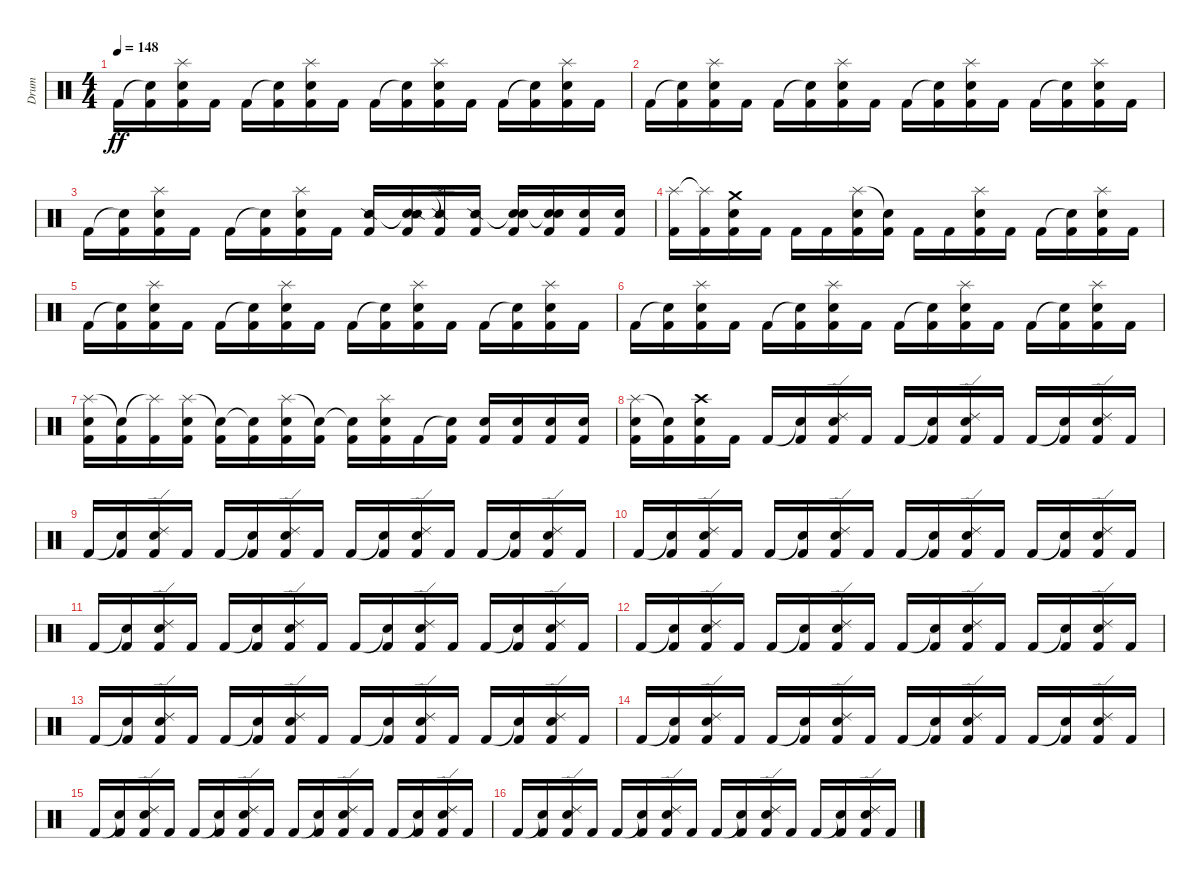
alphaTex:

\track ("Drum" "Drum") {instrument percussion}
\staff {score}
\articulation defaults
\ts (4 4)
\tempo 148
\clef neutral
\ks c "Kick (hit) 2".16{dy ff}
("Snare (hit)"{t} "Kick (hit) 2").16 ("Splash (hit)" "Snare (hit) 2" "Kick (hit) 2").16 "Kick (hit) 2".16 "Kick (hit) 2".16 ("Snare (hit)"{t} "Kick (hit) 2").16 ("Splash (hit)" "Snare (hit) 2" "Kick (hit) 2").16 "Kick (hit) 2".16 "Kick (hit) 2".16 ("Snare (hit)"{t} "Kick (hit) 2").16 ("Splash (hit)" "Snare (hit) 2" "Kick (hit) 2").16 "Kick (hit) 2".16 "Kick (hit) 2".16 ("Snare (hit)"{t} "Kick (hit) 2").16 ("Splash (hit)" "Snare (hit) 2" "Kick (hit) 2").16 "Kick (hit) 2".16 |
"Kick (hit) 2".16 ("Snare (hit)"{t} "Kick (hit) 2").16 ("Splash (hit)" "Snare (hit) 2" "Kick (hit) 2").16 "Kick (hit) 2".16 "Kick (hit) 2".16 ("Snare (hit)"{t} "Kick (hit) 2").16 ("Splash (hit)" "Snare (hit) 2" "Kick (hit) 2").16 "Kick (hit) 2".16 "Kick (hit) 2".16 ("Snare (hit)"{t} "Kick (hit) 2").16 ("Splash (hit)" "Snare (hit) 2" "Kick (hit) 2").16 "Kick (hit) 2".16 "Kick (hit) 2".16 ("Snare (hit)"{t} "Kick (hit) 2").16 ("Splash (hit)" "Snare (hit) 2" "Kick (hit) 2").16 "Kick (hit) 2".16 |
"Kick (hit) 2".16 ("Snare (hit)"{t} "Kick (hit) 2").16 ("Splash (hit)" "Snare (hit) 2" "Kick (hit) 2").16 "Kick (hit) 2".16 "Kick (hit) 2".16 ("Snare (hit)"{t} "Kick (hit) 2").16 ("Splash (hit)" "Snare (hit) 2" "Kick (hit) 2").16 "Kick (hit) 2".16 ("Snare (side stick) 2" "Kick (hit) 2").16 ("Snare (hit)"{t} "Snare (side stick) 2" "Kick (hit) 2").16 ("Splash (hit)"{t} "Snare (side stick) 2" "Kick (hit) 2").16 ("Snare (side stick) 2" "Kick (hit) 2").16 ("Snare (hit)"{t} "Snare (hit) 2" "Kick (hit) 2").16 ("Snare (hit)"{t} "Snare (hit) 2" "Kick (hit) 2").16 ("Snare (hit) 2" "Kick (hit) 2").16 ("Snare (hit) 2" "Kick (hit) 2").16 |
("Splash (hit)" "Kick (hit) 2").16 ("Splash (hit)"{t} "Kick (hit) 2").16 ("Crash medium (hit)" "Snare (hit) 2" "Kick (hit) 2").16 "Kick (hit) 2".16 "Kick (hit) 2".16 "Kick (hit) 2".16 ("Splash (hit)" "Snare (hit) 2" "Kick (hit) 2").16 ("Snare (hit) 2"{t} "Kick (hit) 2").16 "Kick (hit) 2".16 "Kick (hit) 2".16 ("Splash (hit)" "Snare (hit) 2" "Kick (hit) 2").16 "Kick (hit) 2".16 "Kick (hit) 2".16 ("Snare (hit)"{t} "Kick (hit) 2").16 ("Splash (hit)" "Snare (hit) 2" "Kick (hit) 2").16 "Kick (hit) 2".16 |
"Kick (hit) 2".16 ("Snare (hit)"{t} "Kick (hit) 2").16 ("Splash (hit)" "Snare (hit) 2" "Kick (hit) 2").16 "Kick (hit) 2".16 "Kick (hit) 2".16 ("Snare (hit)"{t} "Kick (hit) 2").16 ("Splash (hit)" "Snare (hit) 2" "Kick (hit) 2").16 "Kick (hit) 2".16 "Kick (hit) 2".16 ("Snare (hit)"{t} "Kick (hit) 2").16 ("Splash (hit)" "Snare (hit) 2" "Kick (hit) 2").16 "Kick (hit) 2".16 "Kick (hit) 2".16 ("Snare (hit)"{t} "Kick (hit) 2").16 ("Splash (hit)" "Snare (hit) 2" "Kick (hit) 2").16 "Kick (hit) 2".16 |
"Kick (hit) 2".16 ("Snare (hit)"{t} "Kick (hit) 2").16 ("Splash (hit)" "Snare (hit) 2" "Kick (hit) 2").16 "Kick (hit) 2".16 "Kick (hit) 2".16 ("Snare (hit)"{t} "Kick (hit) 2").16 ("Splash (hit)" "Snare (hit) 2" "Kick (hit) 2").16 "Kick (hit) 2".16 "Kick (hit) 2".16 ("Snare (hit)"{t} "Kick (hit) 2").16 ("Splash (hit)" "Snare (hit) 2" "Kick (hit) 2").16 "Kick (hit) 2".16 "Kick (hit) 2".16 ("Snare (hit)"{t} "Kick (hit) 2").16 ("Splash (hit)" "Snare (hit) 2" "Kick (hit) 2").16 "Kick (hit) 2".16 |
("Splash (hit)" "Snare (hit) 2" "Kick (hit) 2").16 ("Snare (hit)"{t} "Kick (hit) 2").16 ("Splash (hit)"{t} "Kick (hit) 2").16 ("Splash (hit)" "Snare (hit) 2" "Kick (hit) 2").16 ("Snare (hit)"{t} "Kick (hit) 2").16 ("Snare (hit)"{t} "Kick (hit) 2").16 ("Splash (hit)" "Snare (hit) 2" "Kick (hit) 2").16 ("Snare (hit)"{t} "Kick (hit) 2").16 ("Snare (hit)"{t} "Kick (hit) 2").16 ("Splash (hit)" "Snare (hit) 2" "Kick (hit) 2").16 "Kick (hit) 2".16 ("Snare (hit)"{t} "Kick (hit) 2").16 ("Snare (hit) 2" "Kick (hit) 2").16 ("Snare (hit) 2" "Kick (hit) 2").16 ("Snare (hit) 2" "Kick (hit) 2").16 ("Snare (hit) 2" "Kick (hit) 2").16 |
("Splash (hit)" "Snare (hit) 2" "Kick (hit) 2").16 ("Snare (hit)"{t} "Kick (hit) 2").16 ("Crash high (hit)" "Snare (hit) 2" "Kick (hit) 2").16 "Kick (hit) 2".16 "Kick (hit) 2".16 ("Snare (hit)"{t} "Kick (hit) 2").16 ("Ride (edge) 2" "Snare (hit) 2" "Kick (hit) 2").16 "Kick (hit) 2".16 "Kick (hit) 2".16 ("Snare (hit)"{t} "Kick (hit) 2").16 ("Ride (edge) 2" "Snare (hit) 2" "Kick (hit) 2").16 "Kick (hit) 2".16 "Kick (hit) 2".16 ("Snare (hit)"{t} "Kick (hit) 2").16 ("Ride (edge) 2" "Snare (hit) 2" "Kick (hit) 2").16 "Kick (hit) 2".16 |
"Kick (hit) 2".16 ("Snare (hit)"{t} "Kick (hit) 2").16 ("Ride (edge) 2" "Snare (hit) 2" "Kick (hit) 2").16 "Kick (hit) 2".16 "Kick (hit) 2".16 ("Snare (hit)"{t} "Kick (hit) 2").16 ("Ride (edge) 2" "Snare (hit) 2" "Kick (hit) 2").16 "Kick (hit) 2".16 "Kick (hit) 2".16 ("Snare (hit)"{t} "Kick (hit) 2").16 ("Ride (edge) 2" "Snare (hit) 2" "Kick (hit) 2").16 "Kick (hit) 2".16 "Kick (hit) 2".16 ("Snare (hit)"{t} "Kick (hit) 2").16 ("Ride (edge) 2" "Snare (hit) 2" "Kick (hit) 2").16 "Kick (hit) 2".16 |
"Kick (hit) 2".16 ("Snare (hit)"{t} "Kick (hit) 2").16 ("Ride (edge) 2" "Snare (hit) 2" "Kick (hit) 2").16 "Kick (hit) 2".16 "Kick (hit) 2".16 ("Snare (hit)"{t} "Kick (hit) 2").16 ("Ride (edge) 2" "Snare (hit) 2" "Kick (hit) 2").16 "Kick (hit) 2".16 "Kick (hit) 2".16 ("Snare (hit)"{t} "Kick (hit) 2").16 ("Ride (edge) 2" "Snare (hit) 2" "Kick (hit) 2").16 "Kick (hit) 2".16 "Kick (hit) 2".16 ("Snare (hit)"{t} "Kick (hit) 2").16 ("Ride (edge) 2" "Snare (hit) 2" "Kick (hit) 2").16 "Kick (hit) 2".16 |
"Kick (hit) 2".16 ("Snare (hit)"{t} "Kick (hit) 2").16 ("Ride (edge) 2" "Snare (hit) 2" "Kick (hit) 2").16 "Kick (hit) 2".16 "Kick (hit) 2".16 ("Snare (hit)"{t} "Kick (hit) 2").16 ("Ride (edge) 2" "Snare (hit) 2" "Kick (hit) 2").16 "Kick (hit) 2".16 "Kick (hit) 2".16 ("Snare (hit)"{t} "Kick (hit) 2").16 ("Ride (edge) 2" "Snare (hit) 2" "Kick (hit) 2").16 "Kick (hit) 2".16 "Kick (hit) 2".16 ("Snare (hit)"{t} "Kick (hit) 2").16 ("Ride (edge) 2" "Snare (hit) 2" "Kick (hit) 2").16 "Kick (hit) 2".16 |
"Kick (hit) 2".16 ("Snare (hit)"{t} "Kick (hit) 2").16 ("Ride (edge) 2" "Snare (hit) 2" "Kick (hit) 2").16 "Kick (hit) 2".16 "Kick (hit) 2".16 ("Snare (hit)"{t} "Kick (hit) 2").16 ("Ride (edge) 2" "Snare (hit) 2" "Kick (hit) 2").16 "Kick (hit) 2".16 "Kick (hit) 2".16 ("Snare (hit)"{t} "Kick (hit) 2").16 ("Ride (edge) 2" "Snare (hit) 2" "Kick (hit) 2").16 "Kick (hit) 2".16 "Kick (hit) 2".16 ("Snare (hit)"{t} "Kick (hit) 2").16 ("Ride (edge) 2" "Snare (hit) 2" "Kick (hit) 2").16 "Kick (hit) 2".16 |
"Kick (hit) 2".16 ("Snare (hit)"{t} "Kick (hit) 2").16 ("Ride (edge) 2" "Snare (hit) 2" "Kick (hit) 2").16 "Kick (hit) 2".16 "Kick (hit) 2".16 ("Snare (hit)"{t} "Kick (hit) 2").16 ("Ride (edge) 2" "Snare (hit) 2" "Kick (hit) 2").16 "Kick (hit) 2".16 "Kick (hit) 2".16 ("Snare (hit)"{t} "Kick (hit) 2").16 ("Ride (edge) 2" "Snare (hit) 2" "Kick (hit) 2").16 "Kick (hit) 2".16 "Kick (hit) 2".16 ("Snare (hit)"{t} "Kick (hit) 2").16 ("Ride (edge) 2" "Snare (hit) 2" "Kick (hit) 2").16 "Kick (hit) 2".16 |
"Kick (hit) 2".16 ("Snare (hit)"{t} "Kick (hit) 2").16 ("Ride (edge) 2" "Snare (hit) 2" "Kick (hit) 2").16 "Kick (hit) 2".16 "Kick (hit) 2".16 ("Snare (hit)"{t} "Kick (hit) 2").16 ("Ride (edge) 2" "Snare (hit) 2" "Kick (hit) 2").16 "Kick (hit) 2".16 "Kick (hit) 2".16 ("Snare (hit)"{t} "Kick (hit) 2").16 ("Ride (edge) 2" "Snare (hit) 2" "Kick (hit) 2").16 "Kick (hit) 2".16 "Kick (hit) 2".16 ("Snare (hit)"{t} "Kick (hit) 2").16 ("Ride (edge) 2" "Snare (hit) 2" "Kick (hit) 2").16 "Kick (hit) 2".16 |
"Kick (hit) 2".16 ("Snare (hit)"{t} "Kick (hit) 2").16 ("Ride (edge) 2" "Snare (hit) 2" "Kick (hit) 2").16 "Kick (hit) 2".16 "Kick (hit) 2".16 ("Snare (hit)"{t} "Kick (hit) 2").16 ("Ride (edge) 2" "Snare (hit) 2" "Kick (hit) 2").16 "Kick (hit) 2".16 "Kick (hit) 2".16 ("Snare (hit)"{t} "Kick (hit) 2").16 ("Ride (edge) 2" "Snare (hit) 2" "Kick (hit) 2").16 "Kick (hit) 2".16 "Kick (hit) 2".16 ("Snare (hit)"{t} "Kick (hit) 2").16 ("Ride (edge) 2" "Snare (hit) 2" "Kick (hit) 2").16 "Kick (hit) 2".16 |
"Kick (hit) 2".16 ("Snare (hit)"{t} "Kick (hit) 2").16 ("Ride (edge) 2" "Snare (hit) 2" "Kick (hit) 2").16 "Kick (hit) 2".16 "Kick (hit) 2".16 ("Snare (hit)"{t} "Kick (hit) 2").16 ("Ride (edge) 2" "Snare (hit) 2" "Kick (hit) 2").16 "Kick (hit) 2".16 "Kick (hit) 2".16 ("Snare (hit)"{t} "Kick (hit) 2").16 ("Ride (edge) 2" "Snare (hit) 2" "Kick (hit) 2").16 "Kick (hit) 2".16 "Kick (hit) 2".16 ("Snare (hit)"{t} "Kick (hit) 2").16 ("Ride (edge) 2" "Snare (hit) 2" "Kick (hit) 2").16 "Kick (hit) 2".16
